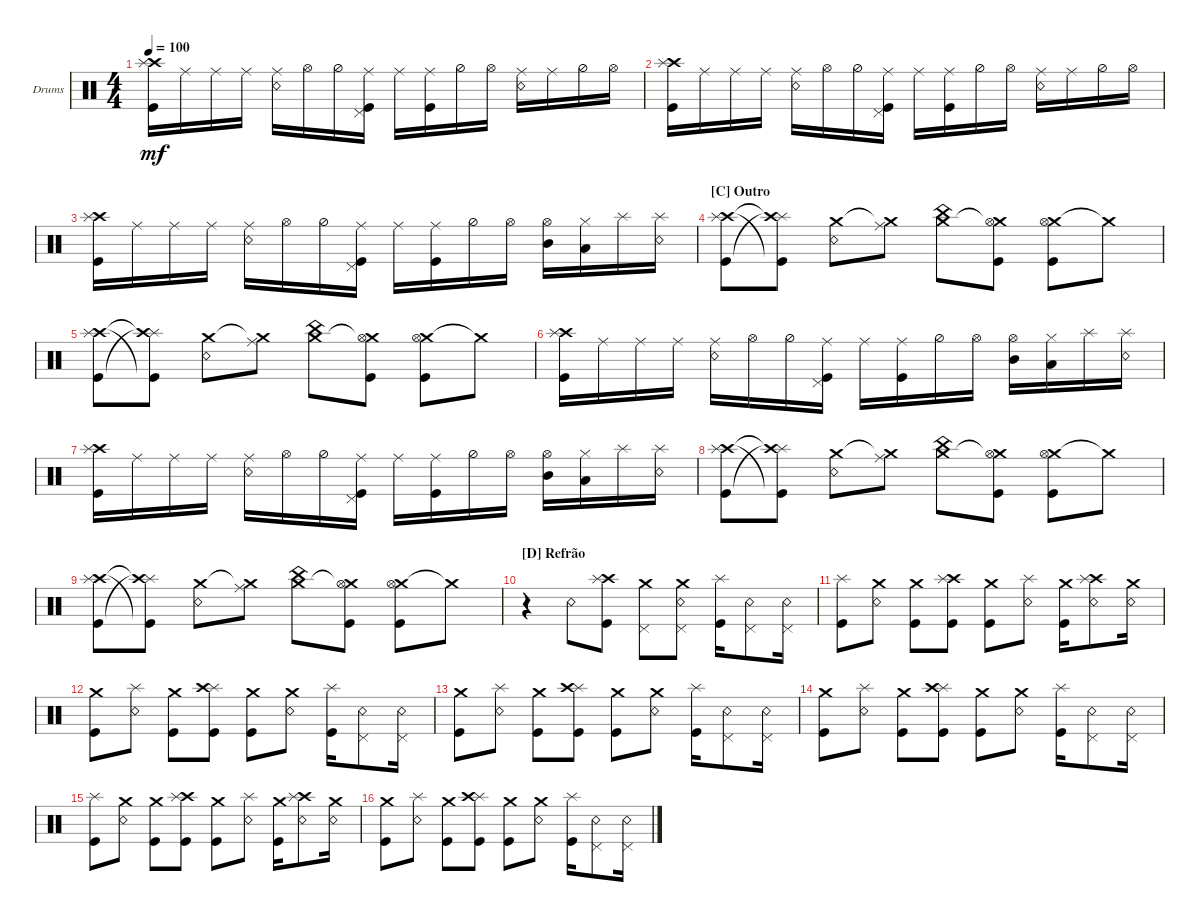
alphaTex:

\defaultSystemsLayout 4
\bracketExtendMode groupsimilarinstruments
\firstSystemTrackNameOrientation horizontal
\otherSystemsTrackNameOrientation horizontal
\track ("Bateria" "Drums") {multiBarRest instrument percussion}
\staff {score}
\articulation defaults
\ts (4 4)
\tempo 100
\clef neutral
\ks c
("Kick (hit)" "Crash high (hit)" "Splash (hit)").16{dy mf} "Ride (middle)".16 "Ride (middle)".16 "Ride (middle)".16 ("Ride (middle)" "Snare (rim shot)").16 "Hi-Hat (open)".16 "Hi-Hat (half)".16 ("Ride (middle)" "Kick (hit)" "Pedal Hi-Hat (hit)").16 "Ride (middle)".16 ("Ride (middle)" "Kick (hit)").16 "Hi-Hat (half)".16 "Hi-Hat (open)".16 ("Ride (middle)" "Snare (rim shot)").16 "Ride (middle)".16 "Hi-Hat (half)".16 "Hi-Hat (open)".16 |
("Kick (hit)" "Crash high (hit)" "Splash (hit)").16 "Ride (middle)".16 "Ride (middle)".16 "Ride (middle)".16 ("Ride (middle)" "Snare (rim shot)").16 "Hi-Hat (open)".16 "Hi-Hat (half)".16 ("Ride (middle)" "Kick (hit)" "Pedal Hi-Hat (hit)").16 "Ride (middle)".16 ("Ride (middle)" "Kick (hit)").16 "Hi-Hat (half)".16 "Hi-Hat (open)".16 ("Ride (middle)" "Snare (rim shot)").16 "Ride (middle)".16 "Hi-Hat (half)".16 "Hi-Hat (open)".16 |
("Kick (hit)" "Crash high (hit)" "Splash (hit)").16 "Ride (middle)".16 "Ride (middle)".16 "Ride (middle)".16 ("Ride (middle)" "Snare (rim shot)").16 "Hi-Hat (open)".16 "Hi-Hat (half)".16 ("Ride (middle)" "Kick (hit)" "Pedal Hi-Hat (hit)").16 "Ride (middle)".16 ("Ride (middle)" "Kick (hit)").16 "Hi-Hat (half)".16 "Hi-Hat (open)".16 ("Mid Tom (hit)" "Hi-Hat (open)").16 ("Low Tom (hit)" "Hi-Hat (closed)").16 "Splash (hit)".16 ("Snare (rim shot)" "Splash (hit)").16 |
\section ("C" "Outro")
("Kick (hit)" "Crash high (hit)" "Splash (hit)").8 ("Splash (hit)"{t} "Kick (hit)"{t} "Crash high (hit)"{t}).8 ("Crash medium (hit)" "Snare (rim shot)").8 ("Crash medium (hit)"{t} "Ride (middle)").8 ("Crash medium (hit)" "China (hit)").8 ("Crash medium (hit)"{t} "Kick (hit)" "Hi-Hat (open)").8 ("Crash medium (hit)" "Kick (hit)" "Hi-Hat (open)").8 "Crash medium (hit)"{t}.8 |
("Kick (hit)" "Crash high (hit)" "Splash (hit)").8 ("Splash (hit)"{t} "Kick (hit)"{t} "Crash high (hit)"{t}).8 ("Crash medium (hit)" "Snare (rim shot)").8 ("Crash medium (hit)"{t} "Ride (middle)").8 ("Crash medium (hit)" "China (hit)").8 ("Crash medium (hit)"{t} "Kick (hit)" "Hi-Hat (open)").8 ("Crash medium (hit)" "Kick (hit)" "Hi-Hat (open)").8 "Crash medium (hit)"{t}.8 |
("Kick (hit)" "Crash high (hit)" "Splash (hit)").16 "Ride (middle)".16 "Ride (middle)".16 "Ride (middle)".16 ("Ride (middle)" "Snare (rim shot)").16 "Hi-Hat (open)".16 "Hi-Hat (half)".16 ("Ride (middle)" "Kick (hit)" "Pedal Hi-Hat (hit)").16 "Ride (middle)".16 ("Ride (middle)" "Kick (hit)").16 "Hi-Hat (half)".16 "Hi-Hat (open)".16 ("Mid Tom (hit)" "Hi-Hat (open)").16 ("Low Tom (hit)" "Hi-Hat (closed)").16 "Splash (hit)".16 ("Snare (rim shot)" "Splash (hit)").16 |
("Kick (hit)" "Crash high (hit)" "Splash (hit)").16 "Ride (middle)".16 "Ride (middle)".16 "Ride (middle)".16 ("Ride (middle)" "Snare (rim shot)").16 "Hi-Hat (open)".16 "Hi-Hat (half)".16 ("Ride (middle)" "Kick (hit)" "Pedal Hi-Hat (hit)").16 "Ride (middle)".16 ("Ride (middle)" "Kick (hit)").16 "Hi-Hat (half)".16 "Hi-Hat (open)".16 ("Mid Tom (hit)" "Hi-Hat (open)").16 ("Low Tom (hit)" "Hi-Hat (closed)").16 "Splash (hit)".16 ("Snare (rim shot)" "Splash (hit)").16 |
("Kick (hit)" "Crash high (hit)" "Splash (hit)").8 ("Splash (hit)"{t} "Kick (hit)"{t} "Crash high (hit)"{t}).8 ("Crash medium (hit)" "Snare (rim shot)").8 ("Crash medium (hit)"{t} "Ride (middle)").8 ("Crash medium (hit)" "China (hit)").8 ("Crash medium (hit)"{t} "Kick (hit)" "Hi-Hat (open)").8 ("Crash medium (hit)" "Kick (hit)" "Hi-Hat (open)").8 "Crash medium (hit)"{t}.8 |
("Kick (hit)" "Crash high (hit)" "Splash (hit)").8 ("Splash (hit)"{t} "Kick (hit)"{t} "Crash high (hit)"{t}).8 ("Crash medium (hit)" "Snare (rim shot)").8 ("Crash medium (hit)"{t} "Ride (middle)").8 ("Crash medium (hit)" "China (hit)").8 ("Crash medium (hit)"{t} "Kick (hit)" "Hi-Hat (open)").8 ("Crash medium (hit)" "Kick (hit)" "Hi-Hat (open)").8 "Crash medium (hit)"{t}.8 |
\section ("D" "Refrão")
r.4 "Snare (rim shot)".8 ("Kick (hit)" "Crash high (hit)" "Splash (hit)").8 ("Pedal Hi-Hat (hit)" "Crash medium (hit)").8 ("Pedal Hi-Hat (hit)" "Snare (rim shot)" "Crash medium (hit)").8 ("Kick (hit)" "Splash (hit)").16 ("Snare (rim shot)" "Pedal Hi-Hat (hit)").8 ("Snare (rim shot)" "Pedal Hi-Hat (hit)").16 |
("Kick (hit)" "Splash (hit)").8 ("Snare (rim shot)" "Crash medium (hit)").8 ("Kick (hit)" "Crash medium (hit)").8 ("Kick (hit)" "Crash high (hit)" "Splash (hit)").8 ("Kick (hit)" "Crash medium (hit)").8 ("Snare (rim shot)" "Splash (hit)").8 ("Kick (hit)" "Crash medium (hit)").16 ("Snare (rim shot)" "Crash high (hit)" "Splash (hit)").8 ("Snare (rim shot)" "Crash medium (hit)").16 |
("Kick (hit)" "Crash medium (hit)").8 ("Snare (rim shot)" "Splash (hit)").8 ("Kick (hit)" "Crash medium (hit)").8 ("Splash (hit)" "Kick (hit)" "Crash high (hit)").8 ("Kick (hit)" "Crash medium (hit)").8 ("Snare (rim shot)" "Crash medium (hit)").8 ("Kick (hit)" "Splash (hit)").16 ("Snare (rim shot)" "Pedal Hi-Hat (hit)").8 ("Snare (rim shot)" "Pedal Hi-Hat (hit)").16 |
("Kick (hit)" "Crash medium (hit)").8 ("Snare (rim shot)" "Splash (hit)").8 ("Kick (hit)" "Crash medium (hit)").8 ("Splash (hit)" "Kick (hit)" "Crash high (hit)").8 ("Kick (hit)" "Crash medium (hit)").8 ("Snare (rim shot)" "Crash medium (hit)").8 ("Kick (hit)" "Splash (hit)").16 ("Snare (rim shot)" "Pedal Hi-Hat (hit)").8 ("Snare (rim shot)" "Pedal Hi-Hat (hit)").16 |
("Kick (hit)" "Crash medium (hit)").8 ("Snare (rim shot)" "Splash (hit)").8 ("Kick (hit)" "Crash medium (hit)").8 ("Splash (hit)" "Kick (hit)" "Crash high (hit)").8 ("Kick (hit)" "Crash medium (hit)").8 ("Snare (rim shot)" "Crash medium (hit)").8 ("Kick (hit)" "Splash (hit)").16 ("Snare (rim shot)" "Pedal Hi-Hat (hit)").8 ("Snare (rim shot)" "Pedal Hi-Hat (hit)").16 |
("Kick (hit)" "Splash (hit)").8 ("Snare (rim shot)" "Crash medium (hit)").8 ("Kick (hit)" "Crash medium (hit)").8 ("Kick (hit)" "Crash high (hit)" "Splash (hit)").8 ("Kick (hit)" "Crash medium (hit)").8 ("Snare (rim shot)" "Splash (hit)").8 ("Kick (hit)" "Crash medium (hit)").16 ("Snare (rim shot)" "Crash high (hit)" "Splash (hit)").8 ("Snare (rim shot)" "Crash medium (hit)").16 |
("Kick (hit)" "Crash medium (hit)").8 ("Snare (rim shot)" "Splash (hit)").8 ("Kick (hit)" "Crash medium (hit)").8 ("Splash (hit)" "Kick (hit)" "Crash high (hit)").8 ("Kick (hit)" "Crash medium (hit)").8 ("Snare (rim shot)" "Crash medium (hit)").8 ("Kick (hit)" "Splash (hit)").16 ("Snare (rim shot)" "Pedal Hi-Hat (hit)").8 ("Snare (rim shot)" "Pedal Hi-Hat (hit)").16
